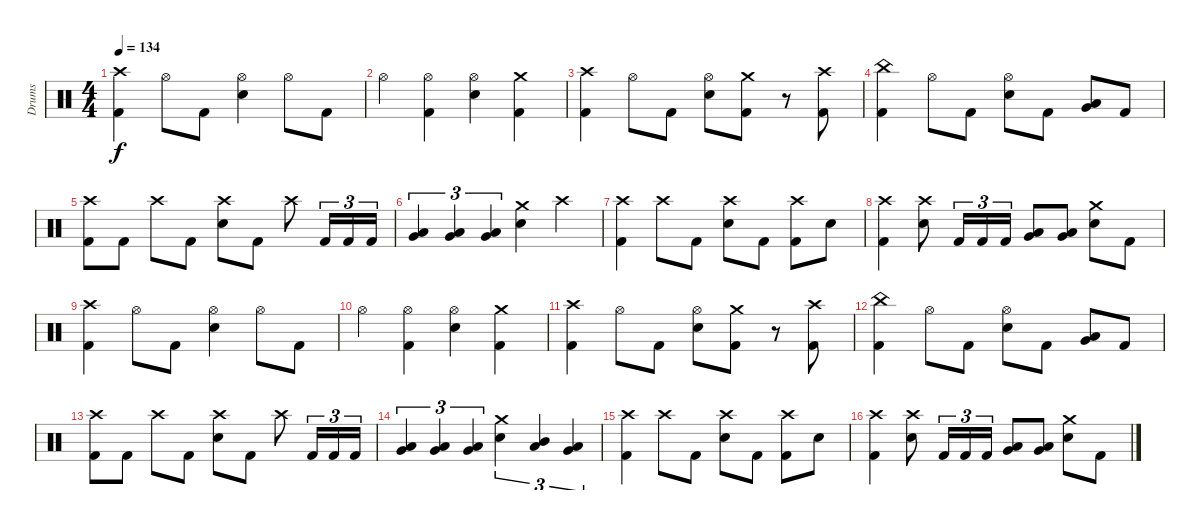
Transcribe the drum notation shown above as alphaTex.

\track ("Drums" "Drums") {instrument percussion}
\staff {score}
\articulation defaults
\ts (4 4)
\tempo 134
\clef neutral
\ks c
("Crash high (hit)" "Kick (hit) 2").4{dy f} "Hi-Hat (open)".8 "Kick (hit) 2".8 ("Hi-Hat (open)" "Electric Snare (hit)").4 "Hi-Hat (open)".8 "Kick (hit) 2".8 |
"Hi-Hat (open)".4 ("Hi-Hat (open)" "Kick (hit) 2").4 ("Hi-Hat (open)" "Electric Snare (hit)").4 ("Crash medium (hit)" "Kick (hit) 2").4 |
("Crash high (hit)" "Kick (hit) 2").4 "Hi-Hat (open)".8 "Kick (hit) 2".8 ("Hi-Hat (open)" "Electric Snare (hit)").8 ("Crash medium (hit)" "Kick (hit) 2").8 r.8 ("Crash high (hit)" "Kick (hit) 2").8 |
("China (hit)" "Kick (hit) 2").4 "Hi-Hat (open)".8 "Kick (hit) 2".8 ("Hi-Hat (open)" "Electric Snare (hit)").8 "Kick (hit) 2".8 ("Low Tom (hit)" "Very Low Tom (hit)").8 "Kick (hit) 2".8 |
("Crash high (hit)" "Kick (hit) 2").8 "Kick (hit) 2".8 "Crash high (hit)".8 "Kick (hit) 2".8 ("Crash high (hit)" "Electric Snare (hit)").8 "Kick (hit) 2".8 "Crash high (hit)".8 "Kick (hit) 2".16{tu (3 2)} "Kick (hit) 2".16{tu (3 2)} "Kick (hit) 2".16{tu (3 2)} |
("Low Tom (hit)" "Very Low Tom (hit)").4{tu (3 2)} ("Low Tom (hit)" "Very Low Tom (hit)").4{tu (3 2)} ("Low Tom (hit)" "Very Low Tom (hit)").4{tu (3 2)} ("Crash medium (hit)" "Electric Snare (hit)").4 "Crash high (hit)".4 |
("Crash high (hit)" "Kick (hit) 2").4 "Crash high (hit)".8 "Kick (hit) 2".8 ("Crash high (hit)" "Electric Snare (hit)").8 "Kick (hit) 2".8 ("Crash high (hit)" "Kick (hit) 2").8 "Electric Snare (hit)".8 |
("Crash high (hit)" "Kick (hit) 2").4 ("Crash high (hit)" "Electric Snare (hit)").8 "Kick (hit) 2".16{tu (3 2)} "Kick (hit) 2".16{tu (3 2)} "Kick (hit) 2".16{tu (3 2)} ("Low Tom (hit)" "Very Low Tom (hit)").8 ("Low Tom (hit)" "Very Low Tom (hit)").8 ("Crash medium (hit)" "Electric Snare (hit)").8 "Kick (hit) 2".8 |
("Crash high (hit)" "Kick (hit) 2").4 "Hi-Hat (open)".8 "Kick (hit) 2".8 ("Hi-Hat (open)" "Electric Snare (hit)").4 "Hi-Hat (open)".8 "Kick (hit) 2".8 |
"Hi-Hat (open)".4 ("Hi-Hat (open)" "Kick (hit) 2").4 ("Hi-Hat (open)" "Electric Snare (hit)").4 ("Crash medium (hit)" "Kick (hit) 2").4 |
("Crash high (hit)" "Kick (hit) 2").4 "Hi-Hat (open)".8 "Kick (hit) 2".8 ("Hi-Hat (open)" "Electric Snare (hit)").8 ("Crash medium (hit)" "Kick (hit) 2").8 r.8 ("Crash high (hit)" "Kick (hit) 2").8 |
("China (hit)" "Kick (hit) 2").4 "Hi-Hat (open)".8 "Kick (hit) 2".8 ("Hi-Hat (open)" "Electric Snare (hit)").8 "Kick (hit) 2".8 ("Low Tom (hit)" "Very Low Tom (hit)").8 "Kick (hit) 2".8 |
("Crash high (hit)" "Kick (hit) 2").8 "Kick (hit) 2".8 "Crash high (hit)".8 "Kick (hit) 2".8 ("Crash high (hit)" "Electric Snare (hit)").8 "Kick (hit) 2".8 "Crash high (hit)".8 "Kick (hit) 2".16{tu (3 2)} "Kick (hit) 2".16{tu (3 2)} "Kick (hit) 2".16{tu (3 2)} |
("Low Tom (hit)" "Very Low Tom (hit)").4{tu (3 2)} ("Low Tom (hit)" "Very Low Tom (hit)").4{tu (3 2)} ("Low Tom (hit)" "Very Low Tom (hit)").4{tu (3 2)} ("Crash medium (hit)" "Electric Snare (hit)").4{tu (3 2)} ("Mid Tom (hit)" "Low Tom (hit)").4{tu (3 2)} ("Low Tom (hit)" "Very Low Tom (hit)").4{tu (3 2)} |
("Crash high (hit)" "Kick (hit) 2").4 "Crash high (hit)".8 "Kick (hit) 2".8 ("Crash high (hit)" "Electric Snare (hit)").8 "Kick (hit) 2".8 ("Crash high (hit)" "Kick (hit) 2").8 "Electric Snare (hit)".8 |
("Crash high (hit)" "Kick (hit) 2").4 ("Crash high (hit)" "Electric Snare (hit)").8 "Kick (hit) 2".16{tu (3 2)} "Kick (hit) 2".16{tu (3 2)} "Kick (hit) 2".16{tu (3 2)} ("Low Tom (hit)" "Very Low Tom (hit)").8 ("Low Tom (hit)" "Very Low Tom (hit)").8 ("Crash medium (hit)" "Electric Snare (hit)").8 "Kick (hit) 2".8
